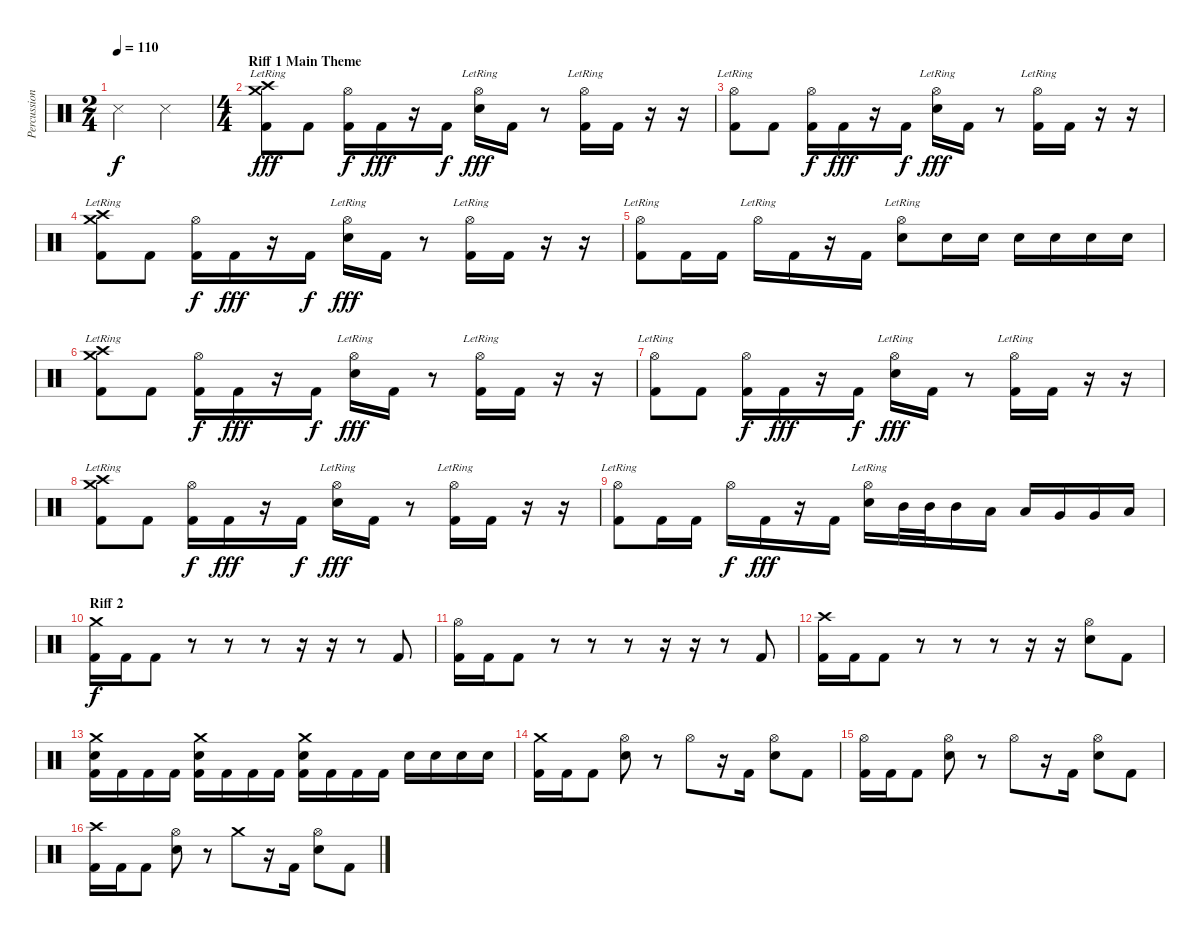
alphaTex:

\track ("Percussions" "Percussion") {instrument percussion}
\staff {score}
\articulation defaults
\ts (2 4)
\tempo 110
\clef neutral
\ks c "Snare (side stick) 3".4{dy f} "Snare (side stick) 3".4
|
\ts (4 4)
\section ("" "Riff 1 Main Theme")
("Crash high (hit)"{lr} "Crash medium (hit)"{lr} "Kick (hit) 2").8{dy fff} "Kick (hit) 2".8 ("Hi-Hat (open)" "Kick (hit) 2").16{dy f} "Kick (hit) 2".16{dy fff} r.16 "Kick (hit) 2".16{dy f} ("Hi-Hat (open)"{lr} "Electric Snare (hit)").16{dy fff} "Kick (hit) 2".16 r.8 ("Hi-Hat (open)"{lr} "Kick (hit) 2").16 "Kick (hit) 2".16 r.16 r.16 |
("Hi-Hat (open)"{lr} "Kick (hit) 2").8 "Kick (hit) 2".8 ("Hi-Hat (open)" "Kick (hit) 2").16{dy f} "Kick (hit) 2".16{dy fff} r.16 "Kick (hit) 2".16{dy f} ("Hi-Hat (open)"{lr} "Electric Snare (hit)").16{dy fff} "Kick (hit) 2".16 r.8 ("Hi-Hat (open)"{lr} "Kick (hit) 2").16 "Kick (hit) 2".16 r.16 r.16 |
("Crash high (hit)"{lr} "Crash medium (hit)"{lr} "Kick (hit) 2").8 "Kick (hit) 2".8 ("Hi-Hat (open)" "Kick (hit) 2").16{dy f} "Kick (hit) 2".16{dy fff} r.16 "Kick (hit) 2".16{dy f} ("Hi-Hat (open)"{lr} "Electric Snare (hit)").16{dy fff} "Kick (hit) 2".16 r.8 ("Hi-Hat (open)"{lr} "Kick (hit) 2").16 "Kick (hit) 2".16 r.16 r.16 |
("Hi-Hat (open)"{lr} "Kick (hit) 2").8 "Kick (hit) 2".16 "Kick (hit) 2".16 "Hi-Hat (open)"{lr}.16 "Kick (hit) 2".16 r.16 "Kick (hit) 2".16 ("Hi-Hat (open)"{lr} "Electric Snare (hit)").8 "Electric Snare (hit)".16 "Electric Snare (hit)".16 "Electric Snare (hit)".16 "Electric Snare (hit)".16 "Electric Snare (hit)".16 "Electric Snare (hit)".16 |
("Crash high (hit)"{lr} "Crash medium (hit)"{lr} "Kick (hit) 2").8 "Kick (hit) 2".8 ("Hi-Hat (open)" "Kick (hit) 2").16{dy f} "Kick (hit) 2".16{dy fff} r.16 "Kick (hit) 2".16{dy f} ("Hi-Hat (open)"{lr} "Electric Snare (hit)").16{dy fff} "Kick (hit) 2".16 r.8 ("Hi-Hat (open)"{lr} "Kick (hit) 2").16 "Kick (hit) 2".16 r.16 r.16 |
("Hi-Hat (open)"{lr} "Kick (hit) 2").8 "Kick (hit) 2".8 ("Hi-Hat (open)" "Kick (hit) 2").16{dy f} "Kick (hit) 2".16{dy fff} r.16 "Kick (hit) 2".16{dy f} ("Hi-Hat (open)"{lr} "Electric Snare (hit)").16{dy fff} "Kick (hit) 2".16 r.8 ("Hi-Hat (open)"{lr} "Kick (hit) 2").16 "Kick (hit) 2".16 r.16 r.16 |
("Crash high (hit)"{lr} "Crash medium (hit)"{lr} "Kick (hit) 2").8 "Kick (hit) 2".8 ("Hi-Hat (open)" "Kick (hit) 2").16{dy f} "Kick (hit) 2".16{dy fff} r.16 "Kick (hit) 2".16{dy f} ("Hi-Hat (open)"{lr} "Electric Snare (hit)").16{dy fff} "Kick (hit) 2".16 r.8 ("Hi-Hat (open)"{lr} "Kick (hit) 2").16 "Kick (hit) 2".16 r.16 r.16 |
("Hi-Hat (open)"{lr} "Kick (hit) 2").8 "Kick (hit) 2".16 "Kick (hit) 2".16 "Hi-Hat (open)".16{dy f} "Kick (hit) 2".16{dy fff} r.16 "Kick (hit) 2".16 ("Hi-Hat (open)"{lr} "Electric Snare (hit)").16 "Mid Tom (hit)".32 "Mid Tom (hit)".32 "Mid Tom (hit)".16 "Low Tom (hit)".16 "Low Tom (hit)".16 "Very Low Tom (hit)".16 "Very Low Tom (hit)".16 "Low Floor Tom (hit)".16 |
\section ("" "Riff 2")
("Crash medium (hit)" "Kick (hit) 2").16{dy f} "Kick (hit) 2".16 "Kick (hit) 2".8 r.8 r.8 r.8 r.16 r.16 r.8 "Kick (hit) 2".8 |
("Hi-Hat (open)" "Kick (hit) 2").16 "Kick (hit) 2".16 "Kick (hit) 2".8 r.8 r.8 r.8 r.16 r.16 r.8 "Kick (hit) 2".8 |
("Crash high (hit)" "Kick (hit) 2").16 "Kick (hit) 2".16 "Kick (hit) 2".8 r.8 r.8 r.8 r.16 r.16 ("Hi-Hat (open)" "Electric Snare (hit)").8 "Kick (hit) 2".8 |
("Crash medium (hit)" "Electric Snare (hit)" "Kick (hit) 2").16 "Kick (hit) 2".16 "Kick (hit) 2".16 "Kick (hit) 2".16 ("Crash medium (hit)" "Electric Snare (hit)" "Kick (hit) 2").16 "Kick (hit) 2".16 "Kick (hit) 2".16 "Kick (hit) 2".16 ("Crash medium (hit)" "Electric Snare (hit)" "Kick (hit) 2").16 "Kick (hit) 2".16 "Kick (hit) 2".16 "Kick (hit) 2".16 "Electric Snare (hit)".16 "Electric Snare (hit)".16 "Electric Snare (hit)".16 "Electric Snare (hit)".16 |
("Crash medium (hit)" "Kick (hit) 2").16 "Kick (hit) 2".16 "Kick (hit) 2".8 ("Hi-Hat (open)" "Electric Snare (hit)").8 r.8 "Hi-Hat (open)".8 r.16 "Kick (hit) 2".16 ("Hi-Hat (open)" "Electric Snare (hit)").8 "Kick (hit) 2".8 |
("Hi-Hat (open)" "Kick (hit) 2").16 "Kick (hit) 2".16 "Kick (hit) 2".8 ("Hi-Hat (open)" "Electric Snare (hit)").8 r.8 "Hi-Hat (open)".8 r.16 "Kick (hit) 2".16 ("Hi-Hat (open)" "Electric Snare (hit)").8 "Kick (hit) 2".8 |
("Crash high (hit)" "Kick (hit) 2").16 "Kick (hit) 2".16 "Kick (hit) 2".8 ("Hi-Hat (open)" "Electric Snare (hit)").8 r.8 "Crash medium (hit)".8 r.16 "Kick (hit) 2".16 ("Hi-Hat (open)" "Electric Snare (hit)").8 "Kick (hit) 2".8
